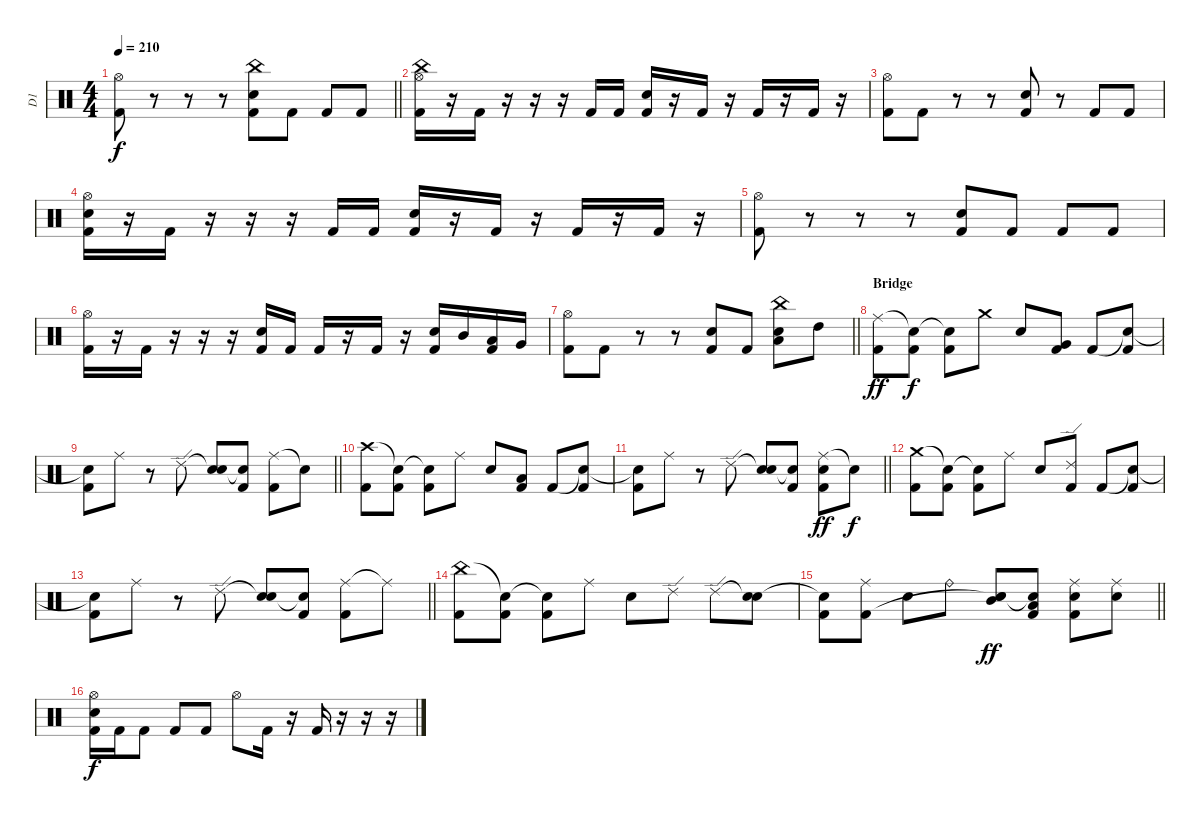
\track ("D1" "D1") {instrument percussion}
\staff {score}
\articulation defaults
\ts (4 4)
\tempo 210
\clef neutral
\barLineRight lightlight
\ks c
("Hi-Hat (open)" "Kick (hit) 2").8{dy f} r.8 r.8 r.8 ("Snare (hit) 2" "China (hit)" "Kick (hit) 2").8 "Kick (hit) 2".8 "Kick (hit) 2".8 "Kick (hit) 2".8 |
("China (hit)" "Kick (hit) 2" "Hi-Hat (open)").16 r.16 "Kick (hit) 2".16 r.16 r.16 r.16 "Kick (hit) 2".16 "Kick (hit) 2".16 ("Snare (hit) 2" "Kick (hit) 2").16 r.16 "Kick (hit) 2".16 r.16 "Kick (hit) 2".16 r.16 "Kick (hit) 2".16 r.16 |
("Hi-Hat (open)" "Kick (hit) 2").8 "Kick (hit) 2".8 r.8 r.8 ("Snare (hit) 2" "Kick (hit) 2").8 r.8 "Kick (hit) 2".8 "Kick (hit) 2".8 |
("Hi-Hat (open)" "Kick (hit) 2" "Snare (hit) 2").16 r.16 "Kick (hit) 2".16 r.16 r.16 r.16 "Kick (hit) 2".16 "Kick (hit) 2".16 ("Snare (hit) 2" "Kick (hit) 2").16 r.16 "Kick (hit) 2".16 r.16 "Kick (hit) 2".16 r.16 "Kick (hit) 2".16 r.16 |
("Hi-Hat (open)" "Kick (hit) 2").8 r.8 r.8 r.8 ("Snare (hit) 2" "Kick (hit) 2").8 "Kick (hit) 2".8 "Kick (hit) 2".8 "Kick (hit) 2".8 |
("Hi-Hat (open)" "Kick (hit) 2").16 r.16 "Kick (hit) 2".16 r.16 r.16 r.16 ("Kick (hit) 2" "Snare (hit) 2").16 "Kick (hit) 2".16 "Kick (hit) 2".16 r.16 "Kick (hit) 2".16 r.16 ("Kick (hit) 2" "Snare (hit) 2").16 "Mid Tom (hit)".16 ("Kick (hit) 2" "Low Tom (hit)").16 "Very Low Tom (hit)".16 |
\barLineRight lightlight
("Hi-Hat (open)" "Kick (hit) 2").8 "Kick (hit) 2".8 r.8 r.8 ("Snare (hit) 2" "Kick (hit) 2").8 "Kick (hit) 2".8 ("China (hit)" "Low Tom (hit)" "Snare (hit) 2").8 "High Tom (hit)".8 |
\section ("" "Bridge")
("Ride (middle)" "Kick (hit) 2").8{dy ff} ("Snare (hit)"{t} "Kick (hit) 2").8{dy f} ("Snare (hit)"{t} "Kick (hit) 2").8 "Crash medium (hit)".8 "Snare (hit) 2".8 ("Very Low Tom (hit)" "Kick (hit) 2").8 "Kick (hit) 2".8 ("Snare (hit)"{t} "Kick (hit) 2").8 |
\barLineRight lightlight
("Snare (hit)"{t} "Kick (hit) 2").8 "Ride (middle)".8 r.8 "Ride (edge) 2".8 ("Snare (hit)"{t} "Snare (hit) 2").8 ("Snare (hit)"{t} "Kick (hit) 2").8 ("Ride (middle)" "Kick (hit) 2").8 "Snare (hit)"{t}.8 |
("Crash high (hit)" "Kick (hit) 2").8 ("Snare (hit)"{t} "Kick (hit) 2").8 ("Snare (hit)"{t} "Kick (hit) 2").8 "Ride (middle)".8 "Snare (hit) 2".8 ("Low Tom (hit)" "Kick (hit) 2").8 "Kick (hit) 2".8 ("Snare (hit)"{t} "Kick (hit) 2").8 |
\barLineRight lightlight
("Snare (hit)"{t} "Kick (hit) 2").8 "Ride (middle)".8 r.8 "Ride (edge) 2".8 ("Snare (hit)"{t} "Snare (hit) 2").8 ("Snare (hit)"{t} "Kick (hit) 2").8 ("Ride (middle)" "Kick (hit) 2" "Snare (hit) 2").8{dy ff} "Snare (hit)"{t}.8{dy f} |
("Crash medium (hit)" "Kick (hit) 2").8 ("Snare (hit)"{t} "Kick (hit) 2").8 ("Snare (hit)"{t} "Kick (hit) 2").8 "Ride (middle)".8 "Snare (hit) 2".8 ("Ride (edge) 2" "Kick (hit) 2").8 "Kick (hit) 2".8 ("Snare (hit)"{t} "Kick (hit) 2").8 |
\barLineRight lightlight
("Snare (hit)"{t} "Kick (hit) 2").8 "Ride (middle)".8 r.8 "Ride (edge) 2".8 ("Snare (hit)"{t} "Snare (hit) 2").8 ("Snare (hit)"{t} "Kick (hit) 2").8 ("Ride (middle)" "Kick (hit) 2").8 "Ride (middle)"{t}.8 |
("China (hit)" "Kick (hit) 2").8 ("Snare (hit)"{t} "Kick (hit) 2").8 ("Snare (hit)"{t} "Kick (hit) 2").8 "Ride (middle)".8 "Snare (hit) 2".8 "Ride (edge) 2".8 "Ride (edge) 2".8 ("Snare (hit)"{t} "Snare (hit) 2").8 |
\barLineRight lightlight
("Snare (hit)"{t} "Kick (hit) 2").8 ("Ride (middle)" "Kick (hit) 2").8 "Snare (hit) 2".8 "Ride (bell)".8 ("Mid Tom (hit)" "Snare (hit)"{t} "Snare (hit) 2").8{dy ff} ("Low Tom (hit)" "Snare (hit)"{t} "Kick (hit) 2").8 ("Snare (hit) 2" "Ride (middle)" "Kick (hit) 2").8 ("Snare (hit) 2" "Ride (middle)").8 |
("Kick (hit) 2" "Snare (hit) 2" "Hi-Hat (open)").16{dy f} "Kick (hit) 2".16 "Kick (hit) 2".8 "Kick (hit) 2".8 "Kick (hit) 2".8 "Hi-Hat (open)".8 "Kick (hit) 2".16 r.16 "Kick (hit) 2".16 r.16 r.16 r.16
